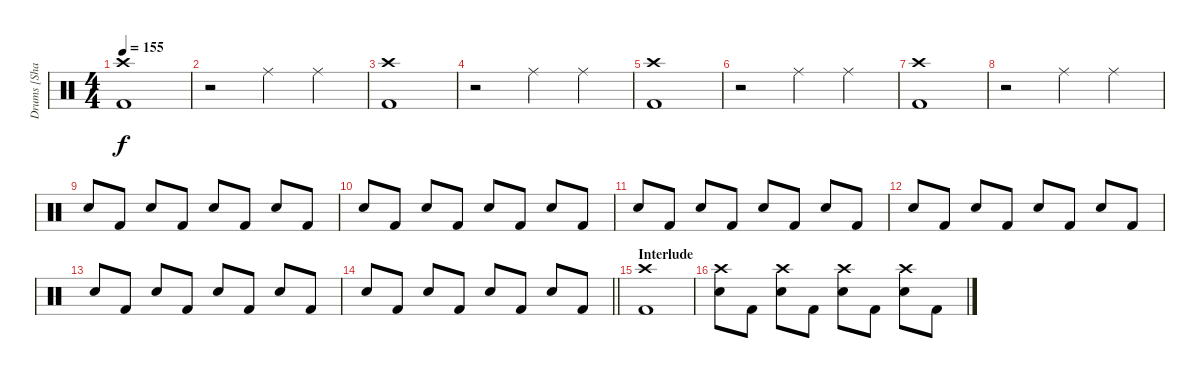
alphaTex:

\track ("Drums [Shannon Larkin]" "Drums [Sha") {instrument percussion}
\staff {score}
\articulation defaults
\ts (4 4)
\tempo 155
\clef neutral
\ks c
("Crash high (hit)" "Kick (hit) 2").1{dy f} |
r.2 "Ride (middle)".4 "Ride (middle)".4 |
("Crash high (hit)" "Kick (hit) 2").1 |
r.2 "Ride (middle)".4 "Ride (middle)".4 |
("Crash high (hit)" "Kick (hit) 2").1 |
r.2 "Ride (middle)".4 "Ride (middle)".4 |
("Crash high (hit)" "Kick (hit) 2").1 |
r.2 "Ride (middle)".4 "Ride (middle)".4 |
"Electric Snare (hit)".8 "Kick (hit) 2".8 "Electric Snare (hit)".8 "Kick (hit) 2".8 "Electric Snare (hit)".8 "Kick (hit) 2".8 "Electric Snare (hit)".8 "Kick (hit) 2".8 |
"Electric Snare (hit)".8 "Kick (hit) 2".8 "Electric Snare (hit)".8 "Kick (hit) 2".8 "Electric Snare (hit)".8 "Kick (hit) 2".8 "Electric Snare (hit)".8 "Kick (hit) 2".8 |
"Electric Snare (hit)".8 "Kick (hit) 2".8 "Electric Snare (hit)".8 "Kick (hit) 2".8 "Electric Snare (hit)".8 "Kick (hit) 2".8 "Electric Snare (hit)".8 "Kick (hit) 2".8 |
"Electric Snare (hit)".8 "Kick (hit) 2".8 "Electric Snare (hit)".8 "Kick (hit) 2".8 "Electric Snare (hit)".8 "Kick (hit) 2".8 "Electric Snare (hit)".8 "Kick (hit) 2".8 |
"Electric Snare (hit)".8 "Kick (hit) 2".8 "Electric Snare (hit)".8 "Kick (hit) 2".8 "Electric Snare (hit)".8 "Kick (hit) 2".8 "Electric Snare (hit)".8 "Kick (hit) 2".8 |
\barLineRight lightlight "Electric Snare (hit)".8 "Kick (hit) 2".8 "Electric Snare (hit)".8 "Kick (hit) 2".8 "Electric Snare (hit)".8 "Kick (hit) 2".8 "Electric Snare (hit)".8 "Kick (hit) 2".8
|
\section ("" "Interlude")
("Crash high (hit)" "Kick (hit) 2").1 |
("Crash high (hit)" "Electric Snare (hit)").8 "Kick (hit) 2".8 ("Crash high (hit)" "Electric Snare (hit)").8 "Kick (hit) 2".8 ("Crash high (hit)" "Electric Snare (hit)").8 "Kick (hit) 2".8 ("Crash high (hit)" "Electric Snare (hit)").8 "Kick (hit) 2".8
